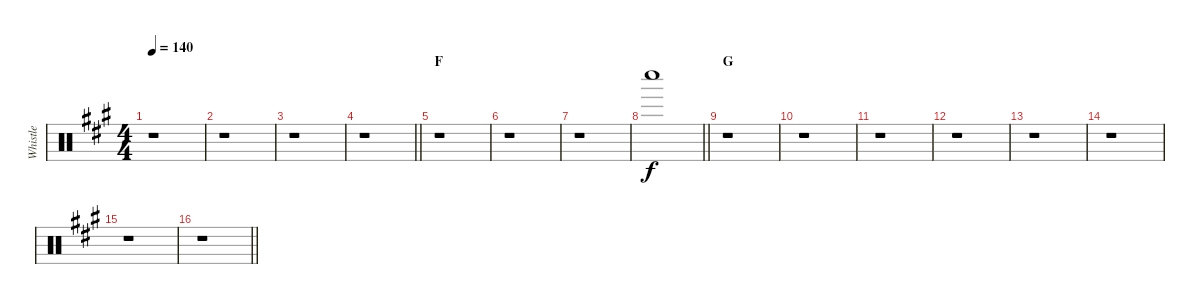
\track ("Whistle" "Whistle") {instrument percussion}
\staff {score}
\articulation defaults
\ts (4 4)
\tempo 140
\clef neutral
\ks a
r.1{dy f} |
r.1 |
r.1 |
\barLineRight lightlight
r.1 |
\section ("" "F")
r.1 |
r.1 |
r.1 |
\barLineRight lightlight "Whistle low (hit)".1
|
\section ("" "G")
r.1 |
r.1 |
r.1 |
r.1 |
r.1 |
r.1 |
r.1 |
\barLineRight lightlight
r.1
